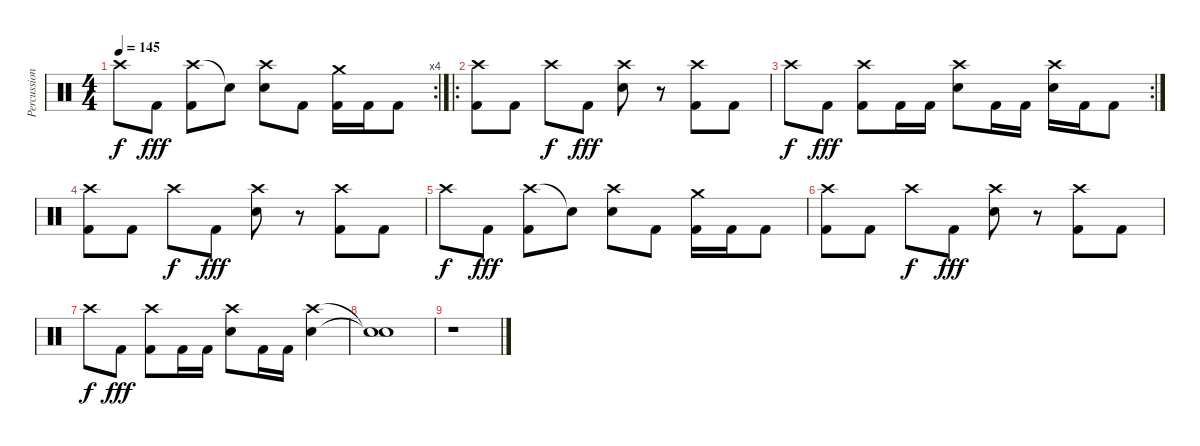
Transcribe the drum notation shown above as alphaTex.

\track ("Percussion" "Percussion") {instrument percussion}
\staff {score}
\articulation defaults
\rc 4
\ts (4 4)
\tempo 145
\clef neutral
\ks c "Crash high (hit)".8{dy f} "Kick (hit) 2".8{dy fff}
("Crash high (hit)" "Kick (hit) 2").8 "Snare (hit)"{t}.8 ("Crash high (hit)" "Electric Snare (hit)").8 "Kick (hit) 2".8 ("Crash medium (hit)" "Kick (hit) 2").16 "Kick (hit) 2".16 "Kick (hit) 2".8 |
\ro
("Crash high (hit)" "Kick (hit) 2").8 "Kick (hit) 2".8 "Crash high (hit)".8{dy f} "Kick (hit) 2".8{dy fff} ("Crash high (hit)" "Electric Snare (hit)").8 r.8 ("Crash high (hit)" "Kick (hit) 2").8 "Kick (hit) 2".8 |
\rc 2 "Crash high (hit)".8{dy f} "Kick (hit) 2".8{dy fff}
("Crash high (hit)" "Kick (hit) 2").8 "Kick (hit) 2".16 "Kick (hit) 2".16 ("Crash high (hit)" "Electric Snare (hit)").8 "Kick (hit) 2".16 "Kick (hit) 2".16 ("Crash high (hit)" "Electric Snare (hit)").16 "Kick (hit) 2".16 "Kick (hit) 2".8 |
("Crash high (hit)" "Kick (hit) 2").8 "Kick (hit) 2".8 "Crash high (hit)".8{dy f} "Kick (hit) 2".8{dy fff} ("Crash high (hit)" "Electric Snare (hit)").8 r.8 ("Crash high (hit)" "Kick (hit) 2").8 "Kick (hit) 2".8 |
"Crash high (hit)".8{dy f} "Kick (hit) 2".8{dy fff} ("Crash high (hit)" "Kick (hit) 2").8 "Snare (hit)"{t}.8 ("Crash high (hit)" "Electric Snare (hit)").8 "Kick (hit) 2".8 ("Crash medium (hit)" "Kick (hit) 2").16 "Kick (hit) 2".16 "Kick (hit) 2".8 |
("Crash high (hit)" "Kick (hit) 2").8 "Kick (hit) 2".8 "Crash high (hit)".8{dy f} "Kick (hit) 2".8{dy fff} ("Crash high (hit)" "Electric Snare (hit)").8 r.8 ("Crash high (hit)" "Kick (hit) 2").8 "Kick (hit) 2".8 |
"Crash high (hit)".8{dy f} "Kick (hit) 2".8{dy fff} ("Crash high (hit)" "Kick (hit) 2").8 "Kick (hit) 2".16 "Kick (hit) 2".16 ("Crash high (hit)" "Electric Snare (hit)").8 "Kick (hit) 2".16 "Kick (hit) 2".16 ("Crash high (hit)" "Electric Snare (hit)").4 |
("Snare (hit)"{t} "Snare (hit)"{t}).1 |
r.1
